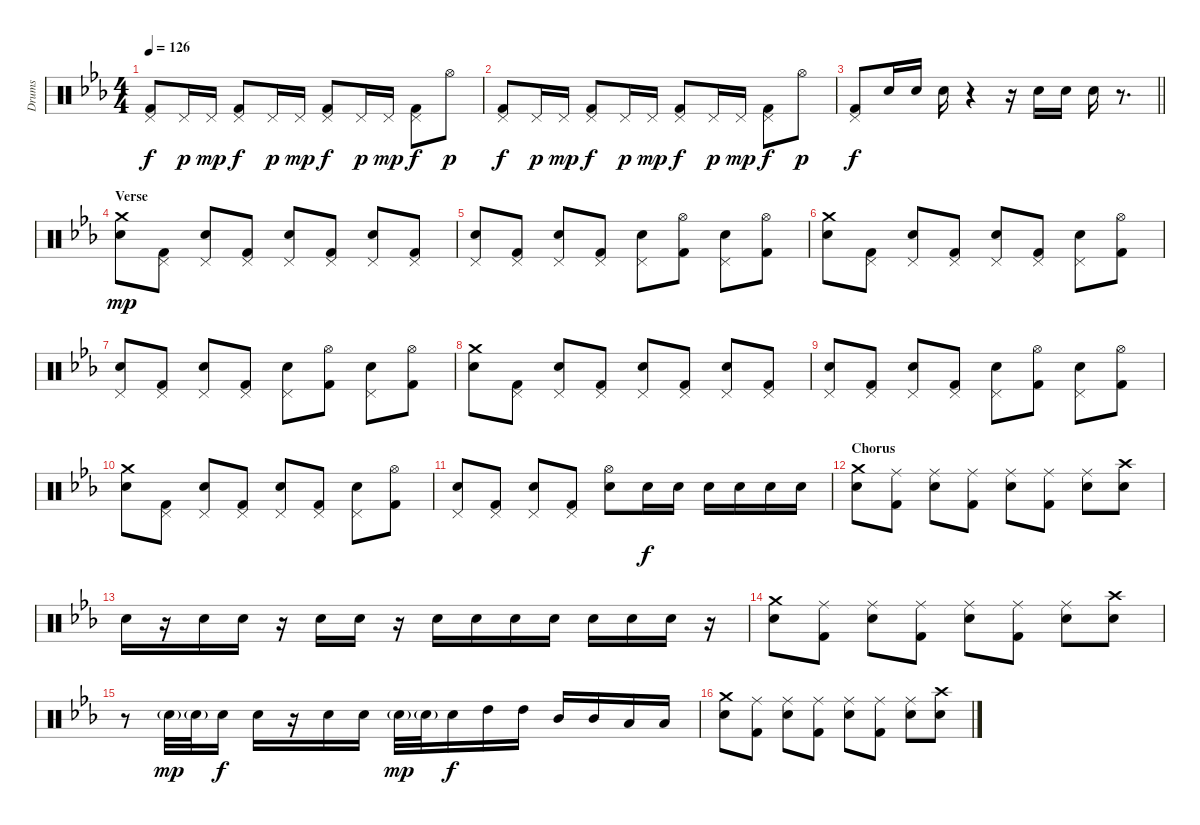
\track ("Drums" "Drums") {instrument percussion}
\staff {score}
\articulation defaults
\ts (4 4)
\tempo 126
\clef neutral
\ks eb
("Pedal Hi-Hat (hit)" "Kick (hit) 2").8{dy f} "Pedal Hi-Hat (hit)".16{dy p} "Pedal Hi-Hat (hit)".16{dy mp} ("Pedal Hi-Hat (hit)" "Kick (hit) 2").8{dy f} "Pedal Hi-Hat (hit)".16{dy p} "Pedal Hi-Hat (hit)".16{dy mp} ("Pedal Hi-Hat (hit)" "Kick (hit) 2").8{dy f} "Pedal Hi-Hat (hit)".16{dy p} "Pedal Hi-Hat (hit)".16{dy mp} ("Pedal Hi-Hat (hit)" "Kick (hit) 2").8{dy f} "Hi-Hat (open)".8{dy p} |
("Pedal Hi-Hat (hit)" "Kick (hit) 2").8{dy f} "Pedal Hi-Hat (hit)".16{dy p} "Pedal Hi-Hat (hit)".16{dy mp} ("Pedal Hi-Hat (hit)" "Kick (hit) 2").8{dy f} "Pedal Hi-Hat (hit)".16{dy p} "Pedal Hi-Hat (hit)".16{dy mp} ("Pedal Hi-Hat (hit)" "Kick (hit) 2").8{dy f} "Pedal Hi-Hat (hit)".16{dy p} "Pedal Hi-Hat (hit)".16{dy mp} ("Pedal Hi-Hat (hit)" "Kick (hit) 2").8{dy f} "Hi-Hat (open)".8{dy p} |
\barLineRight lightlight
("Pedal Hi-Hat (hit)" "Kick (hit) 2").8{dy f} "Electric Snare (hit)".16 "Electric Snare (hit)".16 "Electric Snare (hit)".16 r.4 r.16 "Electric Snare (hit)".16 "Electric Snare (hit)".16 "Electric Snare (hit)".16 r.8{d} |
\section ("" "Verse")
("Crash medium (hit)" "Electric Snare (hit)").8{dy mp} ("Pedal Hi-Hat (hit)" "Kick (hit) 2").8 ("Pedal Hi-Hat (hit)" "Electric Snare (hit)").8 ("Pedal Hi-Hat (hit)" "Kick (hit) 2").8 ("Pedal Hi-Hat (hit)" "Electric Snare (hit)").8 ("Pedal Hi-Hat (hit)" "Kick (hit) 2").8 ("Pedal Hi-Hat (hit)" "Electric Snare (hit)").8 ("Pedal Hi-Hat (hit)" "Kick (hit) 2").8 |
("Pedal Hi-Hat (hit)" "Electric Snare (hit)").8 ("Pedal Hi-Hat (hit)" "Kick (hit) 2").8 ("Pedal Hi-Hat (hit)" "Electric Snare (hit)").8 ("Pedal Hi-Hat (hit)" "Kick (hit) 2").8 ("Pedal Hi-Hat (hit)" "Electric Snare (hit)").8 ("Hi-Hat (open)" "Kick (hit) 2").8 ("Pedal Hi-Hat (hit)" "Electric Snare (hit)").8 ("Hi-Hat (open)" "Kick (hit) 2").8 |
("Crash medium (hit)" "Electric Snare (hit)").8 ("Pedal Hi-Hat (hit)" "Kick (hit) 2").8 ("Pedal Hi-Hat (hit)" "Electric Snare (hit)").8 ("Pedal Hi-Hat (hit)" "Kick (hit) 2").8 ("Pedal Hi-Hat (hit)" "Electric Snare (hit)").8 ("Pedal Hi-Hat (hit)" "Kick (hit) 2").8 ("Pedal Hi-Hat (hit)" "Electric Snare (hit)").8 ("Hi-Hat (open)" "Kick (hit) 2").8 |
("Pedal Hi-Hat (hit)" "Electric Snare (hit)").8 ("Pedal Hi-Hat (hit)" "Kick (hit) 2").8 ("Pedal Hi-Hat (hit)" "Electric Snare (hit)").8 ("Pedal Hi-Hat (hit)" "Kick (hit) 2").8 ("Pedal Hi-Hat (hit)" "Electric Snare (hit)").8 ("Hi-Hat (open)" "Kick (hit) 2").8 ("Pedal Hi-Hat (hit)" "Electric Snare (hit)").8 ("Hi-Hat (open)" "Kick (hit) 2").8 |
("Crash medium (hit)" "Electric Snare (hit)").8 ("Pedal Hi-Hat (hit)" "Kick (hit) 2").8 ("Pedal Hi-Hat (hit)" "Electric Snare (hit)").8 ("Pedal Hi-Hat (hit)" "Kick (hit) 2").8 ("Pedal Hi-Hat (hit)" "Electric Snare (hit)").8 ("Pedal Hi-Hat (hit)" "Kick (hit) 2").8 ("Pedal Hi-Hat (hit)" "Electric Snare (hit)").8 ("Pedal Hi-Hat (hit)" "Kick (hit) 2").8 |
("Pedal Hi-Hat (hit)" "Electric Snare (hit)").8 ("Pedal Hi-Hat (hit)" "Kick (hit) 2").8 ("Pedal Hi-Hat (hit)" "Electric Snare (hit)").8 ("Pedal Hi-Hat (hit)" "Kick (hit) 2").8 ("Pedal Hi-Hat (hit)" "Electric Snare (hit)").8 ("Hi-Hat (open)" "Kick (hit) 2").8 ("Pedal Hi-Hat (hit)" "Electric Snare (hit)").8 ("Hi-Hat (open)" "Kick (hit) 2").8 |
("Crash medium (hit)" "Electric Snare (hit)").8 ("Pedal Hi-Hat (hit)" "Kick (hit) 2").8 ("Pedal Hi-Hat (hit)" "Electric Snare (hit)").8 ("Pedal Hi-Hat (hit)" "Kick (hit) 2").8 ("Pedal Hi-Hat (hit)" "Electric Snare (hit)").8 ("Pedal Hi-Hat (hit)" "Kick (hit) 2").8 ("Pedal Hi-Hat (hit)" "Electric Snare (hit)").8 ("Hi-Hat (open)" "Kick (hit) 2").8 |
("Pedal Hi-Hat (hit)" "Electric Snare (hit)").8 ("Pedal Hi-Hat (hit)" "Kick (hit) 2").8 ("Pedal Hi-Hat (hit)" "Electric Snare (hit)").8 ("Pedal Hi-Hat (hit)" "Kick (hit) 2").8 ("Hi-Hat (open)" "Electric Snare (hit)").8 "Electric Snare (hit)".16{dy f} "Electric Snare (hit)".16 "Electric Snare (hit)".16 "Electric Snare (hit)".16 "Electric Snare (hit)".16 "Electric Snare (hit)".16 |
\section ("" "Chorus")
("Crash medium (hit)" "Electric Snare (hit)").8 ("Ride (middle)" "Kick (hit) 2").8 ("Ride (middle)" "Electric Snare (hit)").8 ("Ride (middle)" "Kick (hit) 2").8 ("Ride (middle)" "Electric Snare (hit)").8 ("Ride (middle)" "Kick (hit) 2").8 ("Ride (middle)" "Electric Snare (hit)").8 ("Crash high (hit)" "Electric Snare (hit)").8 |
"Electric Snare (hit)".16 r.16 "Electric Snare (hit)".16 "Electric Snare (hit)".16 r.16 "Electric Snare (hit)".16 "Electric Snare (hit)".16 r.16 "Electric Snare (hit)".16 "Electric Snare (hit)".16 "Electric Snare (hit)".16 "Electric Snare (hit)".16 "Electric Snare (hit)".16 "Electric Snare (hit)".16 "Electric Snare (hit)".16 r.16 |
("Crash medium (hit)" "Electric Snare (hit)").8 ("Ride (middle)" "Kick (hit) 2").8 ("Ride (middle)" "Electric Snare (hit)").8 ("Ride (middle)" "Kick (hit) 2").8 ("Ride (middle)" "Electric Snare (hit)").8 ("Ride (middle)" "Kick (hit) 2").8 ("Ride (middle)" "Electric Snare (hit)").8 ("Crash high (hit)" "Electric Snare (hit)").8 |
r.8 "Electric Snare (hit)"{g}.32{dy mp} "Electric Snare (hit)"{g}.32 "Electric Snare (hit)".16{dy f} "Electric Snare (hit)".16 r.16 "Electric Snare (hit)".16 "Electric Snare (hit)".16 "Electric Snare (hit)"{g}.32{dy mp} "Electric Snare (hit)"{g}.32 "Electric Snare (hit)".16{dy f} "High Tom (hit)".16 "High Tom (hit)".16 "Mid Tom (hit)".16 "Mid Tom (hit)".16 "Low Tom (hit)".16 "Low Tom (hit)".16 |
("Crash medium (hit)" "Electric Snare (hit)").8 ("Ride (middle)" "Kick (hit) 2").8 ("Ride (middle)" "Electric Snare (hit)").8 ("Ride (middle)" "Kick (hit) 2").8 ("Ride (middle)" "Electric Snare (hit)").8 ("Ride (middle)" "Kick (hit) 2").8 ("Ride (middle)" "Electric Snare (hit)").8 ("Crash high (hit)" "Electric Snare (hit)").8
